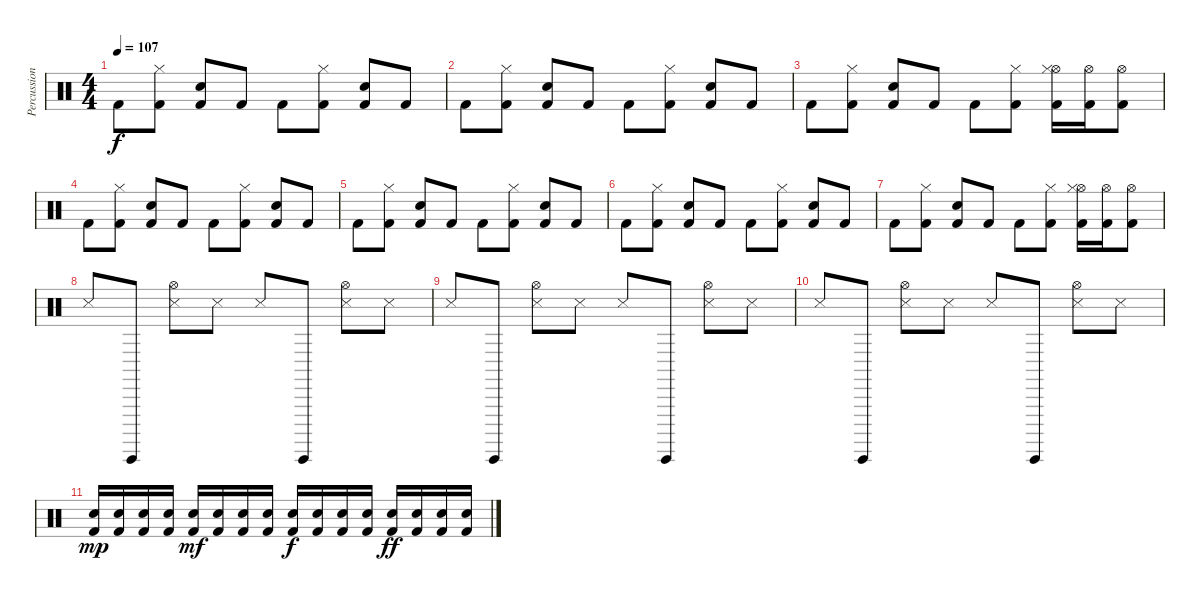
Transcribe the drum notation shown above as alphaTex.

\track ("Percussion" "Percussion") {instrument percussion}
\staff {score}
\articulation defaults
\ts (4 4)
\tempo 107
\clef neutral
\ks c "Kick (hit) 2".8{dy f}
("Kick (hit) 2" "Hi-Hat (closed)").8 ("Snare (hit) 2" "Kick (hit) 2").8 "Kick (hit) 2".8 "Kick (hit) 2".8 ("Kick (hit) 2" "Hi-Hat (closed)").8 ("Snare (hit) 2" "Kick (hit) 2").8 "Kick (hit) 2".8 |
"Kick (hit) 2".8 ("Kick (hit) 2" "Hi-Hat (closed)").8 ("Snare (hit) 2" "Kick (hit) 2").8 "Kick (hit) 2".8 "Kick (hit) 2".8 ("Kick (hit) 2" "Hi-Hat (closed)").8 ("Snare (hit) 2" "Kick (hit) 2").8 "Kick (hit) 2".8 |
"Kick (hit) 2".8 ("Kick (hit) 2" "Hi-Hat (closed)").8 ("Snare (hit) 2" "Kick (hit) 2").8 "Kick (hit) 2".8 "Kick (hit) 2".8 ("Kick (hit) 2" "Hi-Hat (closed)").8 ("Hi-Hat (open)" "Kick (hit) 2" "Hi-Hat (closed)").16 ("Hi-Hat (open)" "Kick (hit) 2").16 ("Kick (hit) 2" "Hi-Hat (open)").8 |
"Kick (hit) 2".8 ("Kick (hit) 2" "Hi-Hat (closed)").8 ("Snare (hit) 2" "Kick (hit) 2").8 "Kick (hit) 2".8 "Kick (hit) 2".8 ("Kick (hit) 2" "Hi-Hat (closed)").8 ("Snare (hit) 2" "Kick (hit) 2").8 "Kick (hit) 2".8 |
"Kick (hit) 2".8 ("Kick (hit) 2" "Hi-Hat (closed)").8 ("Snare (hit) 2" "Kick (hit) 2").8 "Kick (hit) 2".8 "Kick (hit) 2".8 ("Kick (hit) 2" "Hi-Hat (closed)").8 ("Snare (hit) 2" "Kick (hit) 2").8 "Kick (hit) 2".8 |
"Kick (hit) 2".8 ("Kick (hit) 2" "Hi-Hat (closed)").8 ("Snare (hit) 2" "Kick (hit) 2").8 "Kick (hit) 2".8 "Kick (hit) 2".8 ("Kick (hit) 2" "Hi-Hat (closed)").8 ("Snare (hit) 2" "Kick (hit) 2").8 "Kick (hit) 2".8 |
"Kick (hit) 2".8 ("Kick (hit) 2" "Hi-Hat (closed)").8 ("Snare (hit) 2" "Kick (hit) 2").8 "Kick (hit) 2".8 "Kick (hit) 2".8 ("Kick (hit) 2" "Hi-Hat (closed)").8 ("Hi-Hat (open)" "Kick (hit) 2" "Hi-Hat (closed)").16 ("Hi-Hat (open)" "Kick (hit) 2").16 ("Kick (hit) 2" "Hi-Hat (open)").8 |
"Snare (side stick) 3".8 "Guiro (hit)".8 ("Snare (side stick) 3" "Hi-Hat (open)").8 "Snare (side stick) 3".8 "Snare (side stick) 3".8 "Guiro (hit)".8 ("Snare (side stick) 3" "Hi-Hat (open)").8 "Snare (side stick) 3".8 |
"Snare (side stick) 3".8 "Guiro (hit)".8 ("Snare (side stick) 3" "Hi-Hat (open)").8 "Snare (side stick) 3".8 "Snare (side stick) 3".8 "Guiro (hit)".8 ("Snare (side stick) 3" "Hi-Hat (open)").8 "Snare (side stick) 3".8 |
"Snare (side stick) 3".8 "Guiro (hit)".8 ("Snare (side stick) 3" "Hi-Hat (open)").8 "Snare (side stick) 3".8 "Snare (side stick) 3".8 "Guiro (hit)".8 ("Snare (side stick) 3" "Hi-Hat (open)").8 "Snare (side stick) 3".8 |
("Kick (hit) 2" "Snare (hit) 2").16{dy mp} ("Kick (hit) 2" "Snare (hit) 2").16 ("Kick (hit) 2" "Snare (hit) 2").16 ("Kick (hit) 2" "Snare (hit) 2").16 ("Kick (hit) 2" "Snare (hit) 2").16{dy mf} ("Kick (hit) 2" "Snare (hit) 2").16 ("Kick (hit) 2" "Snare (hit) 2").16 ("Kick (hit) 2" "Snare (hit) 2").16 ("Kick (hit) 2" "Snare (hit) 2").16{dy f} ("Kick (hit) 2" "Snare (hit) 2").16 ("Kick (hit) 2" "Snare (hit) 2").16 ("Kick (hit) 2" "Snare (hit) 2").16 ("Kick (hit) 2" "Snare (hit) 2").16{dy ff} ("Kick (hit) 2" "Snare (hit) 2").16 ("Kick (hit) 2" "Snare (hit) 2").16 ("Kick (hit) 2" "Snare (hit) 2").16
